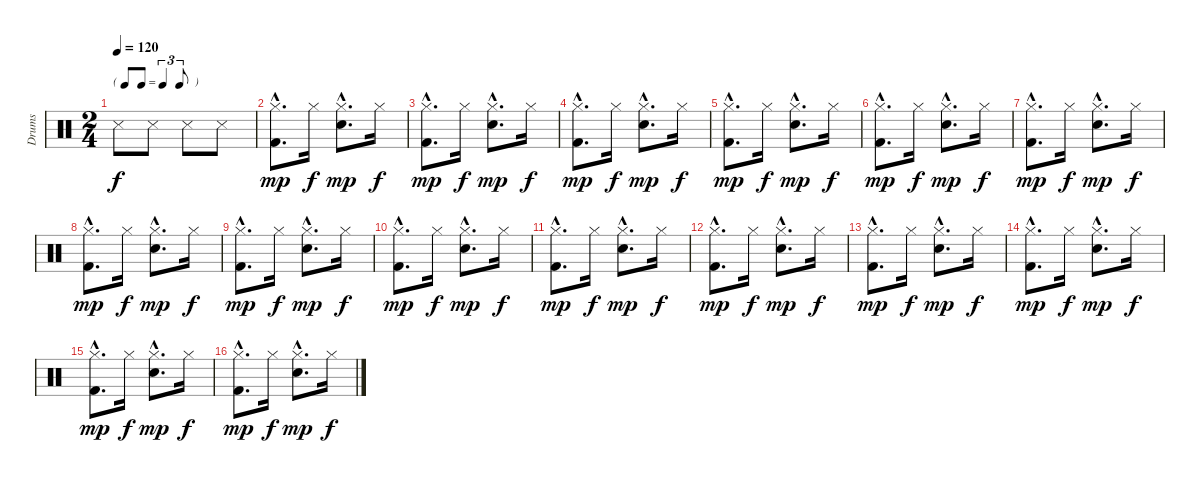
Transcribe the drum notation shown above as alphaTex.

\track ("Drums" "Drums") {instrument percussion}
\staff {score}
\articulation defaults
\ts (2 4)
\tf triplet8th
\tempo 120
\clef neutral
\ks c "Metronome (hit)".8{dy f} "Metronome (hit)".8 "Metronome (hit)".8 "Metronome (hit)".8
|
("Kick (hit) 2"{hac} "Hi-Hat (closed)"{hac}).8{d dy mp} "Hi-Hat (closed)".16{dy f} ("Snare (hit) 2"{hac} "Hi-Hat (closed)"{hac}).8{d dy mp} "Hi-Hat (closed)".16{dy f} |
("Kick (hit) 2"{hac} "Hi-Hat (closed)"{hac}).8{d dy mp} "Hi-Hat (closed)".16{dy f} ("Snare (hit) 2"{hac} "Hi-Hat (closed)"{hac}).8{d dy mp} "Hi-Hat (closed)".16{dy f} |
("Kick (hit) 2"{hac} "Hi-Hat (closed)"{hac}).8{d dy mp} "Hi-Hat (closed)".16{dy f} ("Snare (hit) 2"{hac} "Hi-Hat (closed)"{hac}).8{d dy mp} "Hi-Hat (closed)".16{dy f} |
("Kick (hit) 2"{hac} "Hi-Hat (closed)"{hac}).8{d dy mp} "Hi-Hat (closed)".16{dy f} ("Snare (hit) 2"{hac} "Hi-Hat (closed)"{hac}).8{d dy mp} "Hi-Hat (closed)".16{dy f} |
("Kick (hit) 2"{hac} "Hi-Hat (closed)"{hac}).8{d dy mp} "Hi-Hat (closed)".16{dy f} ("Snare (hit) 2"{hac} "Hi-Hat (closed)"{hac}).8{d dy mp} "Hi-Hat (closed)".16{dy f} |
("Kick (hit) 2"{hac} "Hi-Hat (closed)"{hac}).8{d dy mp} "Hi-Hat (closed)".16{dy f} ("Snare (hit) 2"{hac} "Hi-Hat (closed)"{hac}).8{d dy mp} "Hi-Hat (closed)".16{dy f} |
("Kick (hit) 2"{hac} "Hi-Hat (closed)"{hac}).8{d dy mp} "Hi-Hat (closed)".16{dy f} ("Snare (hit) 2"{hac} "Hi-Hat (closed)"{hac}).8{d dy mp} "Hi-Hat (closed)".16{dy f} |
("Kick (hit) 2"{hac} "Hi-Hat (closed)"{hac}).8{d dy mp} "Hi-Hat (closed)".16{dy f} ("Snare (hit) 2"{hac} "Hi-Hat (closed)"{hac}).8{d dy mp} "Hi-Hat (closed)".16{dy f} |
("Kick (hit) 2"{hac} "Hi-Hat (closed)"{hac}).8{d dy mp} "Hi-Hat (closed)".16{dy f} ("Snare (hit) 2"{hac} "Hi-Hat (closed)"{hac}).8{d dy mp} "Hi-Hat (closed)".16{dy f} |
("Kick (hit) 2"{hac} "Hi-Hat (closed)"{hac}).8{d dy mp} "Hi-Hat (closed)".16{dy f} ("Snare (hit) 2"{hac} "Hi-Hat (closed)"{hac}).8{d dy mp} "Hi-Hat (closed)".16{dy f} |
("Kick (hit) 2"{hac} "Hi-Hat (closed)"{hac}).8{d dy mp} "Hi-Hat (closed)".16{dy f} ("Snare (hit) 2"{hac} "Hi-Hat (closed)"{hac}).8{d dy mp} "Hi-Hat (closed)".16{dy f} |
("Kick (hit) 2"{hac} "Hi-Hat (closed)"{hac}).8{d dy mp} "Hi-Hat (closed)".16{dy f} ("Snare (hit) 2"{hac} "Hi-Hat (closed)"{hac}).8{d dy mp} "Hi-Hat (closed)".16{dy f} |
("Kick (hit) 2"{hac} "Hi-Hat (closed)"{hac}).8{d dy mp} "Hi-Hat (closed)".16{dy f} ("Snare (hit) 2"{hac} "Hi-Hat (closed)"{hac}).8{d dy mp} "Hi-Hat (closed)".16{dy f} |
("Kick (hit) 2"{hac} "Hi-Hat (closed)"{hac}).8{d dy mp} "Hi-Hat (closed)".16{dy f} ("Snare (hit) 2"{hac} "Hi-Hat (closed)"{hac}).8{d dy mp} "Hi-Hat (closed)".16{dy f} |
("Kick (hit) 2"{hac} "Hi-Hat (closed)"{hac}).8{d dy mp} "Hi-Hat (closed)".16{dy f} ("Snare (hit) 2"{hac} "Hi-Hat (closed)"{hac}).8{d dy mp} "Hi-Hat (closed)".16{dy f}
